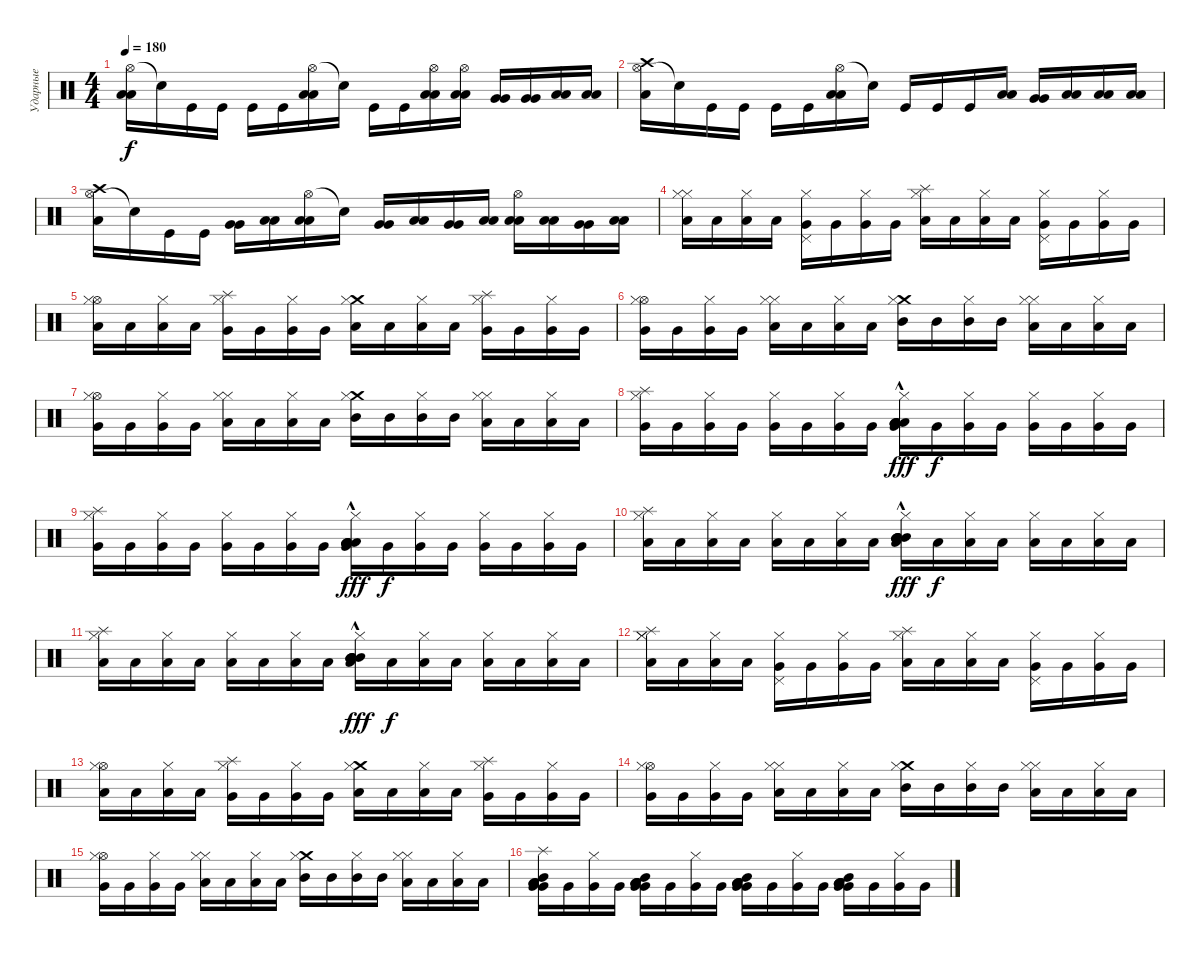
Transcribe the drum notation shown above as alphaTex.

\track ("Ударные" "Ударные") {instrument percussion}
\staff {score}
\articulation defaults
\ts (4 4)
\tempo 180
\clef neutral
\ks c
("Hi-Hat (open)" "Low Tom (hit)" "Low Tom (hit)").16{dy f} "Snare (hit)"{t}.16 "Kick (hit)".16 "Kick (hit)".16 "Kick (hit)".16 "Kick (hit)".16 ("Hi-Hat (open)" "Low Tom (hit)" "Low Tom (hit)").16 "Snare (hit)"{t}.16 "Kick (hit)".16 "Kick (hit)".16 ("Hi-Hat (open)" "Low Tom (hit)" "Low Tom (hit)").16 ("Hi-Hat (open)" "Low Tom (hit)" "Low Tom (hit)").16 ("Very Low Tom (hit)" "Very Low Tom (hit)").16{balance 10} ("Very Low Tom (hit)" "Very Low Tom (hit)").16 ("Low Floor Tom (hit)" "Low Floor Tom (hit)").16{balance 6} ("Low Floor Tom (hit)" "Low Floor Tom (hit)").16 |
("Hi-Hat (open)" "Crash high (hit)" "Low Tom (hit)").16{balance 8} "Snare (hit)"{t}.16 "Kick (hit)".16 "Kick (hit)".16 "Kick (hit)".16 "Kick (hit)".16 ("Hi-Hat (open)" "Low Tom (hit)" "Low Tom (hit)").16 "Snare (hit)"{t}.16 "Kick (hit)".16 "Kick (hit)".16 "Kick (hit)".16 ("Low Tom (hit)" "Low Tom (hit)").16 ("Very Low Tom (hit)" "Very Low Tom (hit)").16{balance 10} ("Low Floor Tom (hit)" "Low Floor Tom (hit)").16{balance 6} ("Low Floor Tom (hit)" "Low Floor Tom (hit)").16 ("Low Floor Tom (hit)" "Low Floor Tom (hit)").16 |
("Hi-Hat (open)" "Crash high (hit)" "Low Tom (hit)").16{volume 13 balance 8} "Snare (hit)"{t}.16 "Kick (hit)".16 "Kick (hit)".16 ("Very Low Tom (hit)" "Very Low Tom (hit)").16{balance 10} ("Low Floor Tom (hit)" "Low Floor Tom (hit)").16{balance 5} ("Hi-Hat (open)" "Low Tom (hit)" "Low Tom (hit)").16{balance 8} "Snare (hit)"{t}.16 ("Very Low Tom (hit)" "Very Low Tom (hit)").16{balance 10} ("Low Floor Tom (hit)" "Low Floor Tom (hit)").16 ("Very Low Tom (hit)" "Very Low Tom (hit)").16{balance 10} ("Low Floor Tom (hit)" "Low Floor Tom (hit)").16 ("Hi-Hat (open)" "Low Tom (hit)" "Low Tom (hit)").16{balance 8} ("Low Floor Tom (hit)" "Low Floor Tom (hit)").16{balance 6} ("Very Low Tom (hit)" "Very Low Tom (hit)").16 ("Low Floor Tom (hit)" "Low Floor Tom (hit)").16{balance 5} |
("Hi-Hat (closed)" "Low Floor Tom (hit)" "Hi-Hat (closed)").16 "Low Floor Tom (hit)".16 ("Low Floor Tom (hit)" "Hi-Hat (closed)").16 "Low Floor Tom (hit)".16 ("Pedal Hi-Hat (hit)" "Very Low Tom (hit)" "Hi-Hat (closed)").16 "Very Low Tom (hit)".16 ("Very Low Tom (hit)" "Hi-Hat (closed)").16 "Very Low Tom (hit)".16 ("Splash (hit)" "Low Tom (hit)" "Hi-Hat (closed)").16 "Low Tom (hit)".16 ("Low Tom (hit)" "Hi-Hat (closed)").16 "Low Tom (hit)".16 ("Pedal Hi-Hat (hit)" "Very Low Tom (hit)" "Hi-Hat (closed)").16 "Very Low Tom (hit)".16 ("Very Low Tom (hit)" "Hi-Hat (closed)").16 "Very Low Tom (hit)".16 |
("Hi-Hat (open)" "Low Floor Tom (hit)" "Hi-Hat (closed)").16 "Low Floor Tom (hit)".16 ("Low Floor Tom (hit)" "Hi-Hat (closed)").16 "Low Floor Tom (hit)".16 ("Splash (hit)" "Very Low Tom (hit)" "Hi-Hat (closed)").16 "Very Low Tom (hit)".16 ("Very Low Tom (hit)" "Hi-Hat (closed)").16 "Very Low Tom (hit)".16 ("Crash medium (hit)" "Low Tom (hit)" "Hi-Hat (closed)").16 "Low Tom (hit)".16 ("Low Tom (hit)" "Hi-Hat (closed)").16 "Low Tom (hit)".16 ("Splash (hit)" "Very Low Tom (hit)" "Hi-Hat (closed)").16 "Very Low Tom (hit)".16 ("Very Low Tom (hit)" "Hi-Hat (closed)").16 "Very Low Tom (hit)".16 |
("Hi-Hat (open)" "Very Low Tom (hit)" "Hi-Hat (closed)").16 "Very Low Tom (hit)".16 ("Very Low Tom (hit)" "Hi-Hat (closed)").16 "Very Low Tom (hit)".16 ("Hi-Hat (closed)" "Low Tom (hit)" "Hi-Hat (closed)").16 "Low Tom (hit)".16 ("Low Tom (hit)" "Hi-Hat (closed)").16 "Low Tom (hit)".16 ("Crash medium (hit)" "Mid Tom (hit)" "Hi-Hat (closed)").16 "Mid Tom (hit)".16 ("Mid Tom (hit)" "Hi-Hat (closed)").16 "Mid Tom (hit)".16 ("Hi-Hat (closed)" "Low Tom (hit)" "Hi-Hat (closed)").16 "Low Tom (hit)".16 ("Low Tom (hit)" "Hi-Hat (closed)").16 "Low Tom (hit)".16 |
("Hi-Hat (open)" "Very Low Tom (hit)" "Hi-Hat (closed)").16 "Very Low Tom (hit)".16 ("Very Low Tom (hit)" "Hi-Hat (closed)").16 "Very Low Tom (hit)".16 ("Hi-Hat (closed)" "Low Tom (hit)" "Hi-Hat (closed)").16 "Low Tom (hit)".16 ("Low Tom (hit)" "Hi-Hat (closed)").16 "Low Tom (hit)".16 ("Crash medium (hit)" "Mid Tom (hit)" "Hi-Hat (closed)").16 "Mid Tom (hit)".16 ("Mid Tom (hit)" "Hi-Hat (closed)").16 "Mid Tom (hit)".16 ("Hi-Hat (closed)" "Low Tom (hit)" "Hi-Hat (closed)").16 "Low Tom (hit)".16 ("Low Tom (hit)" "Hi-Hat (closed)").16 "Low Tom (hit)".16 |
("Splash (hit)" "Very Low Tom (hit)" "Hi-Hat (closed)").16 "Very Low Tom (hit)".16 ("Very Low Tom (hit)" "Hi-Hat (closed)").16 "Very Low Tom (hit)".16 ("Very Low Tom (hit)" "Hi-Hat (closed)").16 "Very Low Tom (hit)".16 ("Very Low Tom (hit)" "Hi-Hat (closed)").16 "Very Low Tom (hit)".16 ("Low Tom (hit)"{hac} "Low Tom (hit)" "Low Tom (hit)" "Very Low Tom (hit)" "Hi-Hat (closed)" "Low Tom (hit)").16{dy fff} "Very Low Tom (hit)".16{dy f} ("Very Low Tom (hit)" "Hi-Hat (closed)").16 "Very Low Tom (hit)".16 ("Very Low Tom (hit)" "Hi-Hat (closed)").16 "Very Low Tom (hit)".16 ("Very Low Tom (hit)" "Hi-Hat (closed)").16 "Very Low Tom (hit)".16 |
("Splash (hit)" "Very Low Tom (hit)" "Hi-Hat (closed)").16 "Very Low Tom (hit)".16 ("Very Low Tom (hit)" "Hi-Hat (closed)").16 "Very Low Tom (hit)".16 ("Very Low Tom (hit)" "Hi-Hat (closed)").16 "Very Low Tom (hit)".16 ("Very Low Tom (hit)" "Hi-Hat (closed)").16 "Very Low Tom (hit)".16 ("Low Tom (hit)"{hac} "Low Tom (hit)" "Low Tom (hit)" "Very Low Tom (hit)" "Hi-Hat (closed)" "Low Tom (hit)").16{dy fff} "Very Low Tom (hit)".16{dy f} ("Very Low Tom (hit)" "Hi-Hat (closed)").16 "Very Low Tom (hit)".16 ("Very Low Tom (hit)" "Hi-Hat (closed)").16 "Very Low Tom (hit)".16 ("Very Low Tom (hit)" "Hi-Hat (closed)").16 "Very Low Tom (hit)".16 |
("Splash (hit)" "Low Floor Tom (hit)" "Hi-Hat (closed)").16 "Low Floor Tom (hit)".16 ("Low Floor Tom (hit)" "Hi-Hat (closed)").16 "Low Floor Tom (hit)".16 ("Low Floor Tom (hit)" "Hi-Hat (closed)").16 "Low Floor Tom (hit)".16 ("Low Floor Tom (hit)" "Hi-Hat (closed)").16 "Low Floor Tom (hit)".16 ("Mid Tom (hit)" "Mid Tom (hit)" "Mid Tom (hit)" "Low Floor Tom (hit)" "Hi-Hat (closed)" "Mid Tom (hit)"{hac}).16{dy fff} "Low Floor Tom (hit)".16{dy f} ("Low Floor Tom (hit)" "Hi-Hat (closed)").16 "Low Floor Tom (hit)".16 ("Low Floor Tom (hit)" "Hi-Hat (closed)").16 "Low Floor Tom (hit)".16 ("Low Floor Tom (hit)" "Hi-Hat (closed)").16 "Low Floor Tom (hit)".16 |
("Splash (hit)" "Low Floor Tom (hit)" "Hi-Hat (closed)").16 "Low Floor Tom (hit)".16 ("Low Floor Tom (hit)" "Hi-Hat (closed)").16 "Low Floor Tom (hit)".16 ("Low Floor Tom (hit)" "Hi-Hat (closed)").16 "Low Floor Tom (hit)".16 ("Low Floor Tom (hit)" "Hi-Hat (closed)").16 "Low Floor Tom (hit)".16 ("Mid Tom (hit)" "Mid Tom (hit)" "Mid Tom (hit)" "Low Floor Tom (hit)" "Hi-Hat (closed)" "Mid Tom (hit)"{hac}).16{dy fff} "Low Floor Tom (hit)".16{dy f} ("Low Floor Tom (hit)" "Hi-Hat (closed)").16 "Low Floor Tom (hit)".16 ("Low Floor Tom (hit)" "Hi-Hat (closed)").16 "Low Floor Tom (hit)".16 ("Low Floor Tom (hit)" "Hi-Hat (closed)").16 "Low Floor Tom (hit)".16 |
("Splash (hit)" "Hi-Hat (closed)" "Low Floor Tom (hit)" "Hi-Hat (closed)").16 "Low Floor Tom (hit)".16 ("Low Floor Tom (hit)" "Hi-Hat (closed)").16 "Low Floor Tom (hit)".16 ("Pedal Hi-Hat (hit)" "Very Low Tom (hit)" "Hi-Hat (closed)").16 "Very Low Tom (hit)".16 ("Very Low Tom (hit)" "Hi-Hat (closed)").16 "Very Low Tom (hit)".16 ("Splash (hit)" "Low Tom (hit)" "Hi-Hat (closed)").16 "Low Tom (hit)".16 ("Low Tom (hit)" "Hi-Hat (closed)").16 "Low Tom (hit)".16 ("Pedal Hi-Hat (hit)" "Very Low Tom (hit)" "Hi-Hat (closed)").16 "Very Low Tom (hit)".16 ("Very Low Tom (hit)" "Hi-Hat (closed)").16 "Very Low Tom (hit)".16 |
("Hi-Hat (open)" "Low Floor Tom (hit)" "Hi-Hat (closed)").16 "Low Floor Tom (hit)".16 ("Low Floor Tom (hit)" "Hi-Hat (closed)").16 "Low Floor Tom (hit)".16 ("Splash (hit)" "Very Low Tom (hit)" "Hi-Hat (closed)").16 "Very Low Tom (hit)".16 ("Very Low Tom (hit)" "Hi-Hat (closed)").16 "Very Low Tom (hit)".16 ("Crash medium (hit)" "Low Tom (hit)" "Hi-Hat (closed)").16 "Low Tom (hit)".16 ("Low Tom (hit)" "Hi-Hat (closed)").16 "Low Tom (hit)".16 ("Splash (hit)" "Very Low Tom (hit)" "Hi-Hat (closed)").16 "Very Low Tom (hit)".16 ("Very Low Tom (hit)" "Hi-Hat (closed)").16 "Very Low Tom (hit)".16 |
("Hi-Hat (open)" "Very Low Tom (hit)" "Hi-Hat (closed)").16 "Very Low Tom (hit)".16 ("Very Low Tom (hit)" "Hi-Hat (closed)").16 "Very Low Tom (hit)".16 ("Hi-Hat (closed)" "Low Tom (hit)" "Hi-Hat (closed)").16 "Low Tom (hit)".16 ("Low Tom (hit)" "Hi-Hat (closed)").16 "Low Tom (hit)".16 ("Crash medium (hit)" "Mid Tom (hit)" "Hi-Hat (closed)").16 "Mid Tom (hit)".16 ("Mid Tom (hit)" "Hi-Hat (closed)").16 "Mid Tom (hit)".16 ("Hi-Hat (closed)" "Low Tom (hit)" "Hi-Hat (closed)").16 "Low Tom (hit)".16 ("Low Tom (hit)" "Hi-Hat (closed)").16 "Low Tom (hit)".16 |
("Hi-Hat (open)" "Very Low Tom (hit)" "Hi-Hat (closed)").16 "Very Low Tom (hit)".16 ("Very Low Tom (hit)" "Hi-Hat (closed)").16 "Very Low Tom (hit)".16 ("Hi-Hat (closed)" "Low Tom (hit)" "Hi-Hat (closed)").16 "Low Tom (hit)".16 ("Low Tom (hit)" "Hi-Hat (closed)").16 "Low Tom (hit)".16 ("Crash medium (hit)" "Mid Tom (hit)" "Hi-Hat (closed)").16 "Mid Tom (hit)".16 ("Mid Tom (hit)" "Hi-Hat (closed)").16 "Mid Tom (hit)".16 ("Hi-Hat (closed)" "Low Tom (hit)" "Hi-Hat (closed)").16 "Low Tom (hit)".16 ("Low Tom (hit)" "Hi-Hat (closed)").16 "Low Tom (hit)".16 |
("Splash (hit)" "Very Low Tom (hit)" "Low Tom (hit)" "Very Low Tom (hit)" "Low Tom (hit)" "Mid Tom (hit)").16 "Very Low Tom (hit)".16 ("Very Low Tom (hit)" "Hi-Hat (closed)").16 "Very Low Tom (hit)".16 ("Low Floor Tom (hit)" "Very Low Tom (hit)" "Low Tom (hit)" "Very Low Tom (hit)" "Low Tom (hit)" "Mid Tom (hit)").16 "Very Low Tom (hit)".16 ("Very Low Tom (hit)" "Hi-Hat (closed)").16 "Very Low Tom (hit)".16 ("Low Floor Tom (hit)" "Very Low Tom (hit)" "Low Tom (hit)" "Very Low Tom (hit)" "Low Tom (hit)" "Mid Tom (hit)").16 "Very Low Tom (hit)".16 ("Very Low Tom (hit)" "Hi-Hat (closed)").16 "Very Low Tom (hit)".16 ("Low Floor Tom (hit)" "Very Low Tom (hit)" "Low Tom (hit)" "Very Low Tom (hit)" "Low Tom (hit)" "Mid Tom (hit)").16 "Very Low Tom (hit)".16 ("Very Low Tom (hit)" "Hi-Hat (closed)").16 "Very Low Tom (hit)".16
